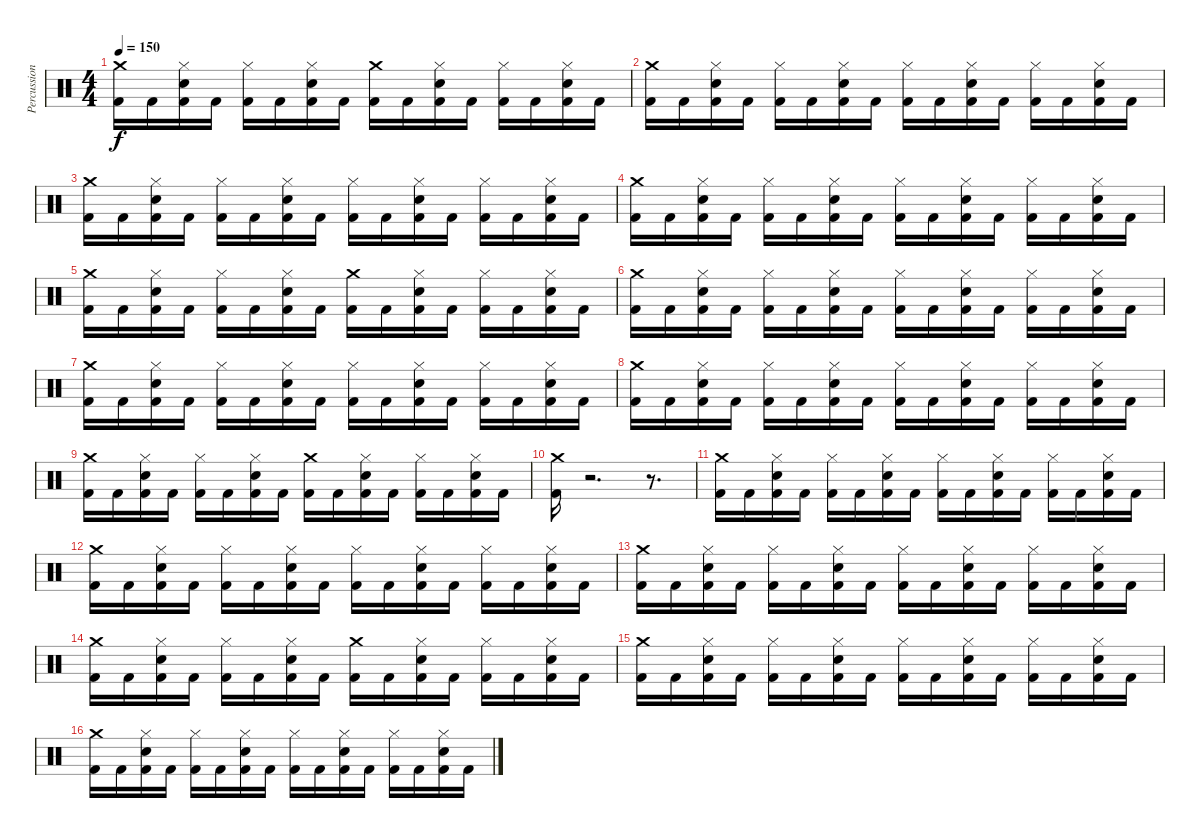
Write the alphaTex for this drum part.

\track ("Percussioni" "Percussion") {instrument percussion}
\staff {score}
\articulation defaults
\ts (4 4)
\tempo 150
\clef neutral
\ks c
("Crash medium (hit)" "Kick (hit) 2").16{dy f} "Kick (hit) 2".16 ("Hi-Hat (closed)" "Electric Snare (hit)" "Kick (hit) 2").16 "Kick (hit) 2".16 ("Hi-Hat (closed)" "Kick (hit) 2").16 "Kick (hit) 2".16 ("Hi-Hat (closed)" "Electric Snare (hit)" "Kick (hit) 2").16 "Kick (hit) 2".16 ("Crash medium (hit)" "Kick (hit) 2").16 "Kick (hit) 2".16 ("Hi-Hat (closed)" "Electric Snare (hit)" "Kick (hit) 2").16 "Kick (hit) 2".16 ("Hi-Hat (closed)" "Kick (hit) 2").16 "Kick (hit) 2".16 ("Hi-Hat (closed)" "Electric Snare (hit)" "Kick (hit) 2").16 "Kick (hit) 2".16 |
("Crash medium (hit)" "Kick (hit) 2").16 "Kick (hit) 2".16 ("Hi-Hat (closed)" "Electric Snare (hit)" "Kick (hit) 2").16 "Kick (hit) 2".16 ("Hi-Hat (closed)" "Kick (hit) 2").16 "Kick (hit) 2".16 ("Hi-Hat (closed)" "Electric Snare (hit)" "Kick (hit) 2").16 "Kick (hit) 2".16 ("Hi-Hat (closed)" "Kick (hit) 2").16 "Kick (hit) 2".16 ("Hi-Hat (closed)" "Electric Snare (hit)" "Kick (hit) 2").16 "Kick (hit) 2".16 ("Hi-Hat (closed)" "Kick (hit) 2").16 "Kick (hit) 2".16 ("Hi-Hat (closed)" "Electric Snare (hit)" "Kick (hit) 2").16 "Kick (hit) 2".16 |
("Crash medium (hit)" "Kick (hit) 2").16 "Kick (hit) 2".16 ("Hi-Hat (closed)" "Electric Snare (hit)" "Kick (hit) 2").16 "Kick (hit) 2".16 ("Hi-Hat (closed)" "Kick (hit) 2").16 "Kick (hit) 2".16 ("Hi-Hat (closed)" "Electric Snare (hit)" "Kick (hit) 2").16 "Kick (hit) 2".16 ("Hi-Hat (closed)" "Kick (hit) 2").16 "Kick (hit) 2".16 ("Hi-Hat (closed)" "Electric Snare (hit)" "Kick (hit) 2").16 "Kick (hit) 2".16 ("Hi-Hat (closed)" "Kick (hit) 2").16 "Kick (hit) 2".16 ("Hi-Hat (closed)" "Electric Snare (hit)" "Kick (hit) 2").16 "Kick (hit) 2".16 |
("Crash medium (hit)" "Kick (hit) 2").16 "Kick (hit) 2".16 ("Hi-Hat (closed)" "Electric Snare (hit)" "Kick (hit) 2").16 "Kick (hit) 2".16 ("Hi-Hat (closed)" "Kick (hit) 2").16 "Kick (hit) 2".16 ("Hi-Hat (closed)" "Electric Snare (hit)" "Kick (hit) 2").16 "Kick (hit) 2".16 ("Hi-Hat (closed)" "Kick (hit) 2").16 "Kick (hit) 2".16 ("Hi-Hat (closed)" "Electric Snare (hit)" "Kick (hit) 2").16 "Kick (hit) 2".16 ("Hi-Hat (closed)" "Kick (hit) 2").16 "Kick (hit) 2".16 ("Hi-Hat (closed)" "Electric Snare (hit)" "Kick (hit) 2").16 "Kick (hit) 2".16 |
("Crash medium (hit)" "Kick (hit) 2").16 "Kick (hit) 2".16 ("Hi-Hat (closed)" "Electric Snare (hit)" "Kick (hit) 2").16 "Kick (hit) 2".16 ("Hi-Hat (closed)" "Kick (hit) 2").16 "Kick (hit) 2".16 ("Hi-Hat (closed)" "Electric Snare (hit)" "Kick (hit) 2").16 "Kick (hit) 2".16 ("Crash medium (hit)" "Kick (hit) 2").16 "Kick (hit) 2".16 ("Hi-Hat (closed)" "Electric Snare (hit)" "Kick (hit) 2").16 "Kick (hit) 2".16 ("Hi-Hat (closed)" "Kick (hit) 2").16 "Kick (hit) 2".16 ("Hi-Hat (closed)" "Electric Snare (hit)" "Kick (hit) 2").16 "Kick (hit) 2".16 |
("Crash medium (hit)" "Kick (hit) 2").16 "Kick (hit) 2".16 ("Hi-Hat (closed)" "Electric Snare (hit)" "Kick (hit) 2").16 "Kick (hit) 2".16 ("Hi-Hat (closed)" "Kick (hit) 2").16 "Kick (hit) 2".16 ("Hi-Hat (closed)" "Electric Snare (hit)" "Kick (hit) 2").16 "Kick (hit) 2".16 ("Hi-Hat (closed)" "Kick (hit) 2").16 "Kick (hit) 2".16 ("Hi-Hat (closed)" "Electric Snare (hit)" "Kick (hit) 2").16 "Kick (hit) 2".16 ("Hi-Hat (closed)" "Kick (hit) 2").16 "Kick (hit) 2".16 ("Hi-Hat (closed)" "Electric Snare (hit)" "Kick (hit) 2").16 "Kick (hit) 2".16 |
("Crash medium (hit)" "Kick (hit) 2").16 "Kick (hit) 2".16 ("Hi-Hat (closed)" "Electric Snare (hit)" "Kick (hit) 2").16 "Kick (hit) 2".16 ("Hi-Hat (closed)" "Kick (hit) 2").16 "Kick (hit) 2".16 ("Hi-Hat (closed)" "Electric Snare (hit)" "Kick (hit) 2").16 "Kick (hit) 2".16 ("Hi-Hat (closed)" "Kick (hit) 2").16 "Kick (hit) 2".16 ("Hi-Hat (closed)" "Electric Snare (hit)" "Kick (hit) 2").16 "Kick (hit) 2".16 ("Hi-Hat (closed)" "Kick (hit) 2").16 "Kick (hit) 2".16 ("Hi-Hat (closed)" "Electric Snare (hit)" "Kick (hit) 2").16 "Kick (hit) 2".16 |
("Crash medium (hit)" "Kick (hit) 2").16 "Kick (hit) 2".16 ("Hi-Hat (closed)" "Electric Snare (hit)" "Kick (hit) 2").16 "Kick (hit) 2".16 ("Hi-Hat (closed)" "Kick (hit) 2").16 "Kick (hit) 2".16 ("Hi-Hat (closed)" "Electric Snare (hit)" "Kick (hit) 2").16 "Kick (hit) 2".16 ("Hi-Hat (closed)" "Kick (hit) 2").16 "Kick (hit) 2".16 ("Hi-Hat (closed)" "Electric Snare (hit)" "Kick (hit) 2").16 "Kick (hit) 2".16 ("Hi-Hat (closed)" "Kick (hit) 2").16 "Kick (hit) 2".16 ("Hi-Hat (closed)" "Electric Snare (hit)" "Kick (hit) 2").16 "Kick (hit) 2".16 |
("Crash medium (hit)" "Kick (hit) 2").16 "Kick (hit) 2".16 ("Hi-Hat (closed)" "Electric Snare (hit)" "Kick (hit) 2").16 "Kick (hit) 2".16 ("Hi-Hat (closed)" "Kick (hit) 2").16 "Kick (hit) 2".16 ("Hi-Hat (closed)" "Electric Snare (hit)" "Kick (hit) 2").16 "Kick (hit) 2".16 ("Crash medium (hit)" "Kick (hit) 2").16 "Kick (hit) 2".16 ("Hi-Hat (closed)" "Electric Snare (hit)" "Kick (hit) 2").16 "Kick (hit) 2".16 ("Hi-Hat (closed)" "Kick (hit) 2").16 "Kick (hit) 2".16 ("Hi-Hat (closed)" "Electric Snare (hit)" "Kick (hit) 2").16 "Kick (hit) 2".16 |
("Crash medium (hit)" "Kick (hit) 2").16 r.2{d} r.8{d} |
("Crash medium (hit)" "Kick (hit) 2").16 "Kick (hit) 2".16 ("Hi-Hat (closed)" "Electric Snare (hit)" "Kick (hit) 2").16 "Kick (hit) 2".16 ("Hi-Hat (closed)" "Kick (hit) 2").16 "Kick (hit) 2".16 ("Hi-Hat (closed)" "Electric Snare (hit)" "Kick (hit) 2").16 "Kick (hit) 2".16 ("Hi-Hat (closed)" "Kick (hit) 2").16 "Kick (hit) 2".16 ("Hi-Hat (closed)" "Electric Snare (hit)" "Kick (hit) 2").16 "Kick (hit) 2".16 ("Hi-Hat (closed)" "Kick (hit) 2").16 "Kick (hit) 2".16 ("Hi-Hat (closed)" "Electric Snare (hit)" "Kick (hit) 2").16 "Kick (hit) 2".16 |
("Crash medium (hit)" "Kick (hit) 2").16 "Kick (hit) 2".16 ("Hi-Hat (closed)" "Electric Snare (hit)" "Kick (hit) 2").16 "Kick (hit) 2".16 ("Hi-Hat (closed)" "Kick (hit) 2").16 "Kick (hit) 2".16 ("Hi-Hat (closed)" "Electric Snare (hit)" "Kick (hit) 2").16 "Kick (hit) 2".16 ("Hi-Hat (closed)" "Kick (hit) 2").16 "Kick (hit) 2".16 ("Hi-Hat (closed)" "Electric Snare (hit)" "Kick (hit) 2").16 "Kick (hit) 2".16 ("Hi-Hat (closed)" "Kick (hit) 2").16 "Kick (hit) 2".16 ("Hi-Hat (closed)" "Electric Snare (hit)" "Kick (hit) 2").16 "Kick (hit) 2".16 |
("Crash medium (hit)" "Kick (hit) 2").16 "Kick (hit) 2".16 ("Hi-Hat (closed)" "Electric Snare (hit)" "Kick (hit) 2").16 "Kick (hit) 2".16 ("Hi-Hat (closed)" "Kick (hit) 2").16 "Kick (hit) 2".16 ("Hi-Hat (closed)" "Electric Snare (hit)" "Kick (hit) 2").16 "Kick (hit) 2".16 ("Hi-Hat (closed)" "Kick (hit) 2").16 "Kick (hit) 2".16 ("Hi-Hat (closed)" "Electric Snare (hit)" "Kick (hit) 2").16 "Kick (hit) 2".16 ("Hi-Hat (closed)" "Kick (hit) 2").16 "Kick (hit) 2".16 ("Hi-Hat (closed)" "Electric Snare (hit)" "Kick (hit) 2").16 "Kick (hit) 2".16 |
("Crash medium (hit)" "Kick (hit) 2").16 "Kick (hit) 2".16 ("Hi-Hat (closed)" "Electric Snare (hit)" "Kick (hit) 2").16 "Kick (hit) 2".16 ("Hi-Hat (closed)" "Kick (hit) 2").16 "Kick (hit) 2".16 ("Hi-Hat (closed)" "Electric Snare (hit)" "Kick (hit) 2").16 "Kick (hit) 2".16 ("Crash medium (hit)" "Kick (hit) 2").16 "Kick (hit) 2".16 ("Hi-Hat (closed)" "Electric Snare (hit)" "Kick (hit) 2").16 "Kick (hit) 2".16 ("Hi-Hat (closed)" "Kick (hit) 2").16 "Kick (hit) 2".16 ("Hi-Hat (closed)" "Electric Snare (hit)" "Kick (hit) 2").16 "Kick (hit) 2".16 |
("Crash medium (hit)" "Kick (hit) 2").16 "Kick (hit) 2".16 ("Hi-Hat (closed)" "Electric Snare (hit)" "Kick (hit) 2").16 "Kick (hit) 2".16 ("Hi-Hat (closed)" "Kick (hit) 2").16 "Kick (hit) 2".16 ("Hi-Hat (closed)" "Electric Snare (hit)" "Kick (hit) 2").16 "Kick (hit) 2".16 ("Hi-Hat (closed)" "Kick (hit) 2").16 "Kick (hit) 2".16 ("Hi-Hat (closed)" "Electric Snare (hit)" "Kick (hit) 2").16 "Kick (hit) 2".16 ("Hi-Hat (closed)" "Kick (hit) 2").16 "Kick (hit) 2".16 ("Hi-Hat (closed)" "Electric Snare (hit)" "Kick (hit) 2").16 "Kick (hit) 2".16 |
("Crash medium (hit)" "Kick (hit) 2").16 "Kick (hit) 2".16 ("Hi-Hat (closed)" "Electric Snare (hit)" "Kick (hit) 2").16 "Kick (hit) 2".16 ("Hi-Hat (closed)" "Kick (hit) 2").16 "Kick (hit) 2".16 ("Hi-Hat (closed)" "Electric Snare (hit)" "Kick (hit) 2").16 "Kick (hit) 2".16 ("Hi-Hat (closed)" "Kick (hit) 2").16 "Kick (hit) 2".16 ("Hi-Hat (closed)" "Electric Snare (hit)" "Kick (hit) 2").16 "Kick (hit) 2".16 ("Hi-Hat (closed)" "Kick (hit) 2").16 "Kick (hit) 2".16 ("Hi-Hat (closed)" "Electric Snare (hit)" "Kick (hit) 2").16 "Kick (hit) 2".16
